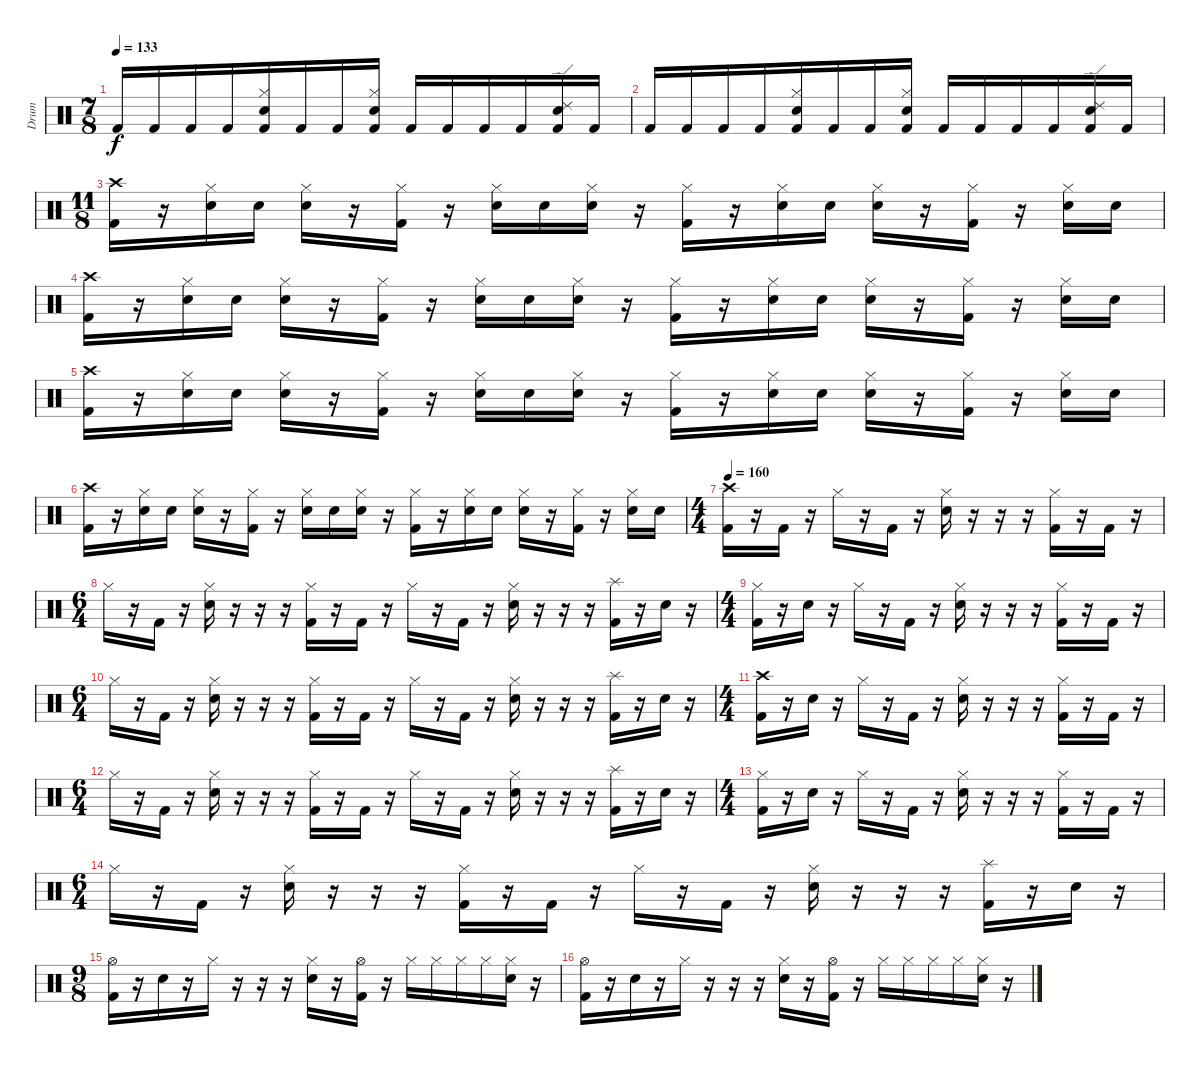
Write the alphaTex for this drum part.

\track ("Drum" "Drum") {instrument percussion}
\staff {score}
\articulation defaults
\ts (7 8)
\tempo 133
\clef neutral
\ks c "Kick (hit) 2".16{dy f} "Kick (hit) 2".16 "Kick (hit) 2".16 "Kick (hit) 2".16
("Hi-Hat (closed)" "Snare (hit) 2" "Kick (hit) 2").16 "Kick (hit) 2".16 "Kick (hit) 2".16 ("Hi-Hat (closed)" "Snare (hit) 2" "Kick (hit) 2").16 "Kick (hit) 2".16 "Kick (hit) 2".16 "Kick (hit) 2".16 "Kick (hit) 2".16 ("Ride (edge) 2" "Snare (hit) 2" "Kick (hit) 2").16 "Kick (hit) 2".16 |
"Kick (hit) 2".16 "Kick (hit) 2".16 "Kick (hit) 2".16 "Kick (hit) 2".16 ("Hi-Hat (closed)" "Snare (hit) 2" "Kick (hit) 2").16 "Kick (hit) 2".16 "Kick (hit) 2".16 ("Hi-Hat (closed)" "Snare (hit) 2" "Kick (hit) 2").16 "Kick (hit) 2".16 "Kick (hit) 2".16 "Kick (hit) 2".16 "Kick (hit) 2".16 ("Ride (edge) 2" "Snare (hit) 2" "Kick (hit) 2").16 "Kick (hit) 2".16 |
\ts (11 8)
("Crash high (hit)" "Kick (hit) 2").16 r.16 ("Hi-Hat (closed)" "Snare (hit) 2").16 "Snare (hit) 2".16 ("Hi-Hat (closed)" "Snare (hit) 2").16 r.16 ("Hi-Hat (closed)" "Kick (hit) 2").16 r.16 ("Hi-Hat (closed)" "Snare (hit) 2").16 "Snare (hit) 2".16 ("Hi-Hat (closed)" "Snare (hit) 2").16 r.16 ("Hi-Hat (closed)" "Kick (hit) 2").16 r.16 ("Hi-Hat (closed)" "Snare (hit) 2").16 "Snare (hit) 2".16 ("Hi-Hat (closed)" "Snare (hit) 2").16 r.16 ("Hi-Hat (closed)" "Kick (hit) 2").16 r.16 ("Hi-Hat (closed)" "Snare (hit) 2").16 "Snare (hit) 2".16 |
("Crash high (hit)" "Kick (hit) 2").16 r.16 ("Hi-Hat (closed)" "Snare (hit) 2").16 "Snare (hit) 2".16 ("Hi-Hat (closed)" "Snare (hit) 2").16 r.16 ("Hi-Hat (closed)" "Kick (hit) 2").16 r.16 ("Hi-Hat (closed)" "Snare (hit) 2").16 "Snare (hit) 2".16 ("Hi-Hat (closed)" "Snare (hit) 2").16 r.16 ("Hi-Hat (closed)" "Kick (hit) 2").16 r.16 ("Hi-Hat (closed)" "Snare (hit) 2").16 "Snare (hit) 2".16 ("Hi-Hat (closed)" "Snare (hit) 2").16 r.16 ("Hi-Hat (closed)" "Kick (hit) 2").16 r.16 ("Hi-Hat (closed)" "Snare (hit) 2").16 "Snare (hit) 2".16 |
("Crash high (hit)" "Kick (hit) 2").16 r.16 ("Hi-Hat (closed)" "Snare (hit) 2").16 "Snare (hit) 2".16 ("Hi-Hat (closed)" "Snare (hit) 2").16 r.16 ("Hi-Hat (closed)" "Kick (hit) 2").16 r.16 ("Hi-Hat (closed)" "Snare (hit) 2").16 "Snare (hit) 2".16 ("Hi-Hat (closed)" "Snare (hit) 2").16 r.16 ("Hi-Hat (closed)" "Kick (hit) 2").16 r.16 ("Hi-Hat (closed)" "Snare (hit) 2").16 "Snare (hit) 2".16 ("Hi-Hat (closed)" "Snare (hit) 2").16 r.16 ("Hi-Hat (closed)" "Kick (hit) 2").16 r.16 ("Hi-Hat (closed)" "Snare (hit) 2").16 "Snare (hit) 2".16 |
("Crash high (hit)" "Kick (hit) 2").16 r.16 ("Hi-Hat (closed)" "Snare (hit) 2").16 "Snare (hit) 2".16 ("Hi-Hat (closed)" "Snare (hit) 2").16 r.16 ("Hi-Hat (closed)" "Kick (hit) 2").16 r.16 ("Hi-Hat (closed)" "Snare (hit) 2").16 "Snare (hit) 2".16 ("Hi-Hat (closed)" "Snare (hit) 2").16 r.16 ("Hi-Hat (closed)" "Kick (hit) 2").16 r.16 ("Hi-Hat (closed)" "Snare (hit) 2").16 "Snare (hit) 2".16 ("Hi-Hat (closed)" "Snare (hit) 2").16 r.16 ("Hi-Hat (closed)" "Kick (hit) 2").16 r.16 ("Hi-Hat (closed)" "Snare (hit) 2").16 "Snare (hit) 2".16 |
\ts (4 4)
\tempo 160
("Crash high (hit)" "Kick (hit) 2").16 r.16 "Kick (hit) 2".16 r.16 "Hi-Hat (closed)".16 r.16 "Kick (hit) 2".16 r.16 ("Hi-Hat (closed)" "Snare (hit) 2").16 r.16 r.16 r.16 ("Hi-Hat (closed)" "Kick (hit) 2").16 r.16 "Kick (hit) 2".16 r.16 |
\ts (6 4)
"Hi-Hat (closed)".16 r.16 "Kick (hit) 2".16 r.16 ("Hi-Hat (closed)" "Snare (hit) 2").16 r.16 r.16 r.16 ("Hi-Hat (closed)" "Kick (hit) 2").16 r.16 "Kick (hit) 2".16 r.16 "Hi-Hat (closed)".16 r.16 "Kick (hit) 2".16 r.16 ("Hi-Hat (closed)" "Snare (hit) 2").16 r.16 r.16 r.16 ("Splash (hit)" "Kick (hit) 2").16 r.16 "Snare (hit) 2".16 r.16 |
\ts (4 4)
("Hi-Hat (closed)" "Kick (hit) 2").16 r.16 "Snare (hit) 2".16 r.16 "Hi-Hat (closed)".16 r.16 "Kick (hit) 2".16 r.16 ("Hi-Hat (closed)" "Snare (hit) 2").16 r.16 r.16 r.16 ("Hi-Hat (closed)" "Kick (hit) 2").16 r.16 "Kick (hit) 2".16 r.16 |
\ts (6 4)
"Hi-Hat (closed)".16 r.16 "Kick (hit) 2".16 r.16 ("Hi-Hat (closed)" "Snare (hit) 2").16 r.16 r.16 r.16 ("Hi-Hat (closed)" "Kick (hit) 2").16 r.16 "Kick (hit) 2".16 r.16 "Hi-Hat (closed)".16 r.16 "Kick (hit) 2".16 r.16 ("Hi-Hat (closed)" "Snare (hit) 2").16 r.16 r.16 r.16 ("Splash (hit)" "Kick (hit) 2").16 r.16 "Snare (hit) 2".16 r.16 |
\ts (4 4)
("Crash high (hit)" "Kick (hit) 2").16 r.16 "Snare (hit) 2".16 r.16 "Hi-Hat (closed)".16 r.16 "Kick (hit) 2".16 r.16 ("Hi-Hat (closed)" "Snare (hit) 2").16 r.16 r.16 r.16 ("Hi-Hat (closed)" "Kick (hit) 2").16 r.16 "Kick (hit) 2".16 r.16 |
\ts (6 4)
"Hi-Hat (closed)".16 r.16 "Kick (hit) 2".16 r.16 ("Hi-Hat (closed)" "Snare (hit) 2").16 r.16 r.16 r.16 ("Hi-Hat (closed)" "Kick (hit) 2").16 r.16 "Kick (hit) 2".16 r.16 "Hi-Hat (closed)".16 r.16 "Kick (hit) 2".16 r.16 ("Hi-Hat (closed)" "Snare (hit) 2").16 r.16 r.16 r.16 ("Splash (hit)" "Kick (hit) 2").16 r.16 "Snare (hit) 2".16 r.16 |
\ts (4 4)
("Hi-Hat (closed)" "Kick (hit) 2").16 r.16 "Snare (hit) 2".16 r.16 "Hi-Hat (closed)".16 r.16 "Kick (hit) 2".16 r.16 ("Hi-Hat (closed)" "Snare (hit) 2").16 r.16 r.16 r.16 ("Hi-Hat (closed)" "Kick (hit) 2").16 r.16 "Kick (hit) 2".16 r.16 |
\ts (6 4)
"Hi-Hat (closed)".16 r.16 "Kick (hit) 2".16 r.16 ("Hi-Hat (closed)" "Snare (hit) 2").16 r.16 r.16 r.16 ("Hi-Hat (closed)" "Kick (hit) 2").16 r.16 "Kick (hit) 2".16 r.16 "Hi-Hat (closed)".16 r.16 "Kick (hit) 2".16 r.16 ("Hi-Hat (closed)" "Snare (hit) 2").16 r.16 r.16 r.16 ("Splash (hit)" "Kick (hit) 2").16 r.16 "Snare (hit) 2".16 r.16 |
\ts (9 8)
("Hi-Hat (open)" "Kick (hit) 2").16 r.16 "Snare (hit) 2".16 r.16 "Hi-Hat (closed)".16 r.16 r.16 r.16 ("Hi-Hat (closed)" "Snare (hit) 2").16 r.16 ("Hi-Hat (open)" "Kick (hit) 2").16 r.16 "Hi-Hat (closed)".16 "Hi-Hat (closed)".16 "Hi-Hat (closed)".16 "Hi-Hat (closed)".16 ("Hi-Hat (closed)" "Snare (hit) 2").16 r.16 |
("Hi-Hat (open)" "Kick (hit) 2").16 r.16 "Snare (hit) 2".16 r.16 "Hi-Hat (closed)".16 r.16 r.16 r.16 ("Hi-Hat (closed)" "Snare (hit) 2").16 r.16 ("Hi-Hat (open)" "Kick (hit) 2").16 r.16 "Hi-Hat (closed)".16 "Hi-Hat (closed)".16 "Hi-Hat (closed)".16 "Hi-Hat (closed)".16 ("Hi-Hat (closed)" "Snare (hit) 2").16 r.16
